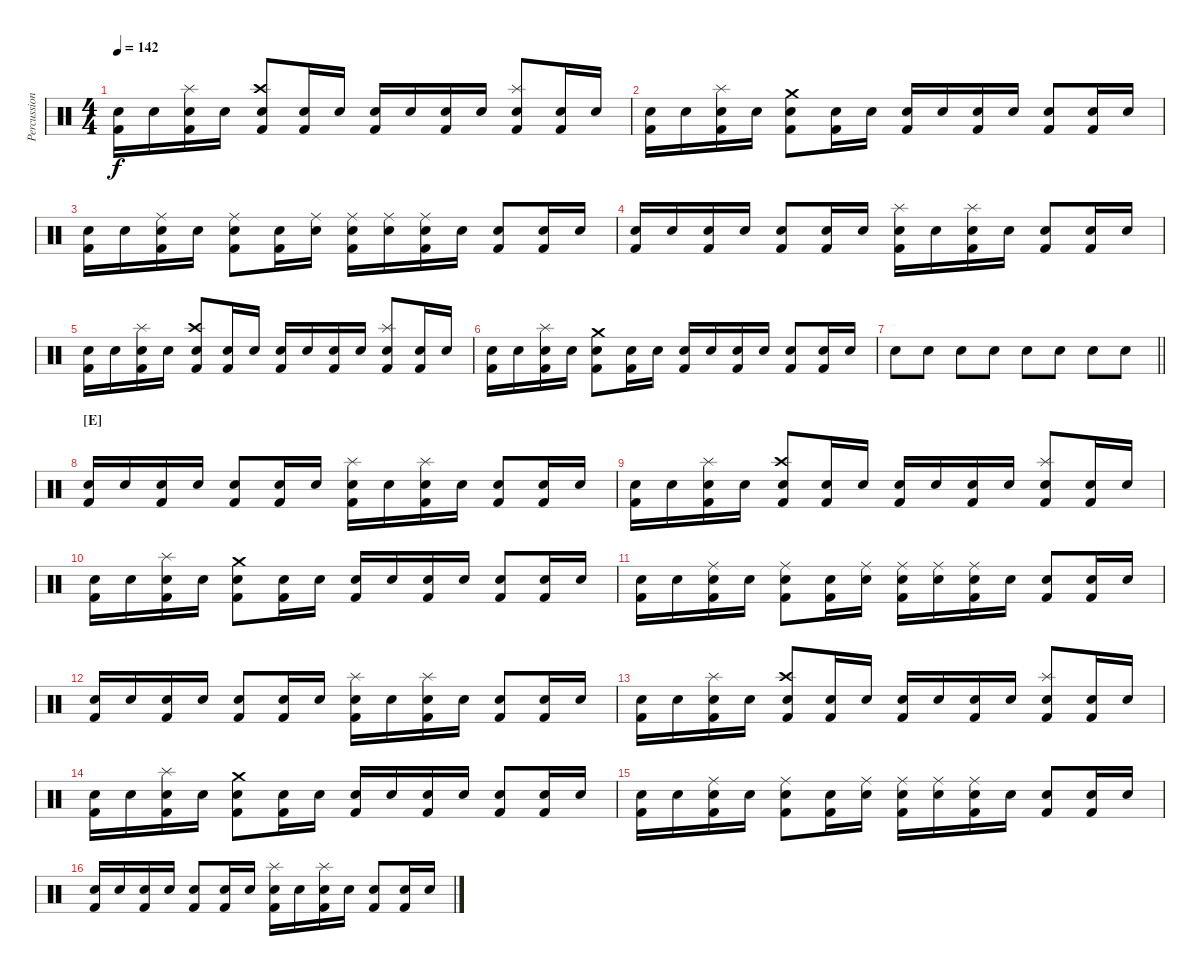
\track ("Percussions" "Percussion") {instrument percussion}
\staff {score}
\articulation defaults
\ts (4 4)
\tempo 142
\clef neutral
\ks c
("Electric Snare (hit)" "Kick (hit) 2").16{dy f} "Electric Snare (hit)".16 ("Splash (hit)" "Electric Snare (hit)" "Kick (hit) 2").16 "Electric Snare (hit)".16 ("Crash high (hit)" "Snare (hit) 2" "Kick (hit) 2").8 ("Electric Snare (hit)" "Kick (hit) 2").16 "Electric Snare (hit)".16 ("Electric Snare (hit)" "Kick (hit) 2").16 "Electric Snare (hit)".16 ("Electric Snare (hit)" "Kick (hit) 2").16 "Electric Snare (hit)".16 ("Splash (hit)" "Snare (hit) 2" "Kick (hit) 2").8 ("Electric Snare (hit)" "Kick (hit) 2").16 "Electric Snare (hit)".16 |
("Electric Snare (hit)" "Kick (hit) 2").16 "Electric Snare (hit)".16 ("Splash (hit)" "Electric Snare (hit)" "Kick (hit) 2").16 "Electric Snare (hit)".16 ("Crash medium (hit)" "Snare (hit) 2" "Kick (hit) 2").8 ("Electric Snare (hit)" "Kick (hit) 2").16 "Electric Snare (hit)".16 ("Electric Snare (hit)" "Kick (hit) 2").16 "Electric Snare (hit)".16 ("Electric Snare (hit)" "Kick (hit) 2").16 "Electric Snare (hit)".16 ("Snare (hit) 2" "Kick (hit) 2").8 ("Electric Snare (hit)" "Kick (hit) 2").16 "Electric Snare (hit)".16 |
("Electric Snare (hit)" "Kick (hit) 2").16 "Electric Snare (hit)".16 ("Ride (middle)" "Electric Snare (hit)" "Kick (hit) 2").16 "Electric Snare (hit)".16 ("Ride (middle)" "Snare (hit) 2" "Kick (hit) 2").8 ("Electric Snare (hit)" "Kick (hit) 2").16 ("Ride (middle)" "Electric Snare (hit)").16 ("Ride (middle)" "Electric Snare (hit)" "Kick (hit) 2").16 ("Ride (middle)" "Electric Snare (hit)").16 ("Ride (middle)" "Electric Snare (hit)" "Kick (hit) 2").16 "Electric Snare (hit)".16 ("Snare (hit) 2" "Kick (hit) 2").8 ("Electric Snare (hit)" "Kick (hit) 2").16 "Electric Snare (hit)".16 |
("Electric Snare (hit)" "Kick (hit) 2").16 "Electric Snare (hit)".16 ("Electric Snare (hit)" "Kick (hit) 2").16 "Electric Snare (hit)".16 ("Snare (hit) 2" "Kick (hit) 2").8 ("Electric Snare (hit)" "Kick (hit) 2").16 "Electric Snare (hit)".16 ("Splash (hit)" "Electric Snare (hit)" "Kick (hit) 2").16 "Electric Snare (hit)".16 ("Splash (hit)" "Electric Snare (hit)" "Kick (hit) 2").16 "Electric Snare (hit)".16 ("Snare (hit) 2" "Kick (hit) 2").8 ("Electric Snare (hit)" "Kick (hit) 2").16 "Electric Snare (hit)".16 |
("Electric Snare (hit)" "Kick (hit) 2").16 "Electric Snare (hit)".16 ("Splash (hit)" "Electric Snare (hit)" "Kick (hit) 2").16 "Electric Snare (hit)".16 ("Crash high (hit)" "Snare (hit) 2" "Kick (hit) 2").8 ("Electric Snare (hit)" "Kick (hit) 2").16 "Electric Snare (hit)".16 ("Electric Snare (hit)" "Kick (hit) 2").16 "Electric Snare (hit)".16 ("Electric Snare (hit)" "Kick (hit) 2").16 "Electric Snare (hit)".16 ("Splash (hit)" "Snare (hit) 2" "Kick (hit) 2").8 ("Electric Snare (hit)" "Kick (hit) 2").16 "Electric Snare (hit)".16 |
("Electric Snare (hit)" "Kick (hit) 2").16 "Electric Snare (hit)".16 ("Splash (hit)" "Electric Snare (hit)" "Kick (hit) 2").16 "Electric Snare (hit)".16 ("Crash medium (hit)" "Snare (hit) 2" "Kick (hit) 2").8 ("Electric Snare (hit)" "Kick (hit) 2").16 "Electric Snare (hit)".16 ("Electric Snare (hit)" "Kick (hit) 2").16 "Electric Snare (hit)".16 ("Electric Snare (hit)" "Kick (hit) 2").16 "Electric Snare (hit)".16 ("Snare (hit) 2" "Kick (hit) 2").8 ("Electric Snare (hit)" "Kick (hit) 2").16 "Electric Snare (hit)".16 |
\barLineRight lightlight "Electric Snare (hit)".8 "Electric Snare (hit)".8 "Electric Snare (hit)".8 "Electric Snare (hit)".8 "Electric Snare (hit)".8 "Electric Snare (hit)".8 "Electric Snare (hit)".8 "Electric Snare (hit)".8
|
\section ("" "[E]")
("Electric Snare (hit)" "Kick (hit) 2").16 "Electric Snare (hit)".16 ("Electric Snare (hit)" "Kick (hit) 2").16 "Electric Snare (hit)".16 ("Snare (hit) 2" "Kick (hit) 2").8 ("Electric Snare (hit)" "Kick (hit) 2").16 "Electric Snare (hit)".16 ("Splash (hit)" "Electric Snare (hit)" "Kick (hit) 2").16 "Electric Snare (hit)".16 ("Splash (hit)" "Electric Snare (hit)" "Kick (hit) 2").16 "Electric Snare (hit)".16 ("Snare (hit) 2" "Kick (hit) 2").8 ("Electric Snare (hit)" "Kick (hit) 2").16 "Electric Snare (hit)".16 |
("Electric Snare (hit)" "Kick (hit) 2").16 "Electric Snare (hit)".16 ("Splash (hit)" "Electric Snare (hit)" "Kick (hit) 2").16 "Electric Snare (hit)".16 ("Crash high (hit)" "Snare (hit) 2" "Kick (hit) 2").8 ("Electric Snare (hit)" "Kick (hit) 2").16 "Electric Snare (hit)".16 ("Electric Snare (hit)" "Kick (hit) 2").16 "Electric Snare (hit)".16 ("Electric Snare (hit)" "Kick (hit) 2").16 "Electric Snare (hit)".16 ("Splash (hit)" "Snare (hit) 2" "Kick (hit) 2").8 ("Electric Snare (hit)" "Kick (hit) 2").16 "Electric Snare (hit)".16 |
("Electric Snare (hit)" "Kick (hit) 2").16 "Electric Snare (hit)".16 ("Splash (hit)" "Electric Snare (hit)" "Kick (hit) 2").16 "Electric Snare (hit)".16 ("Crash medium (hit)" "Snare (hit) 2" "Kick (hit) 2").8 ("Electric Snare (hit)" "Kick (hit) 2").16 "Electric Snare (hit)".16 ("Electric Snare (hit)" "Kick (hit) 2").16 "Electric Snare (hit)".16 ("Electric Snare (hit)" "Kick (hit) 2").16 "Electric Snare (hit)".16 ("Snare (hit) 2" "Kick (hit) 2").8 ("Electric Snare (hit)" "Kick (hit) 2").16 "Electric Snare (hit)".16 |
("Electric Snare (hit)" "Kick (hit) 2").16 "Electric Snare (hit)".16 ("Ride (middle)" "Electric Snare (hit)" "Kick (hit) 2").16 "Electric Snare (hit)".16 ("Ride (middle)" "Snare (hit) 2" "Kick (hit) 2").8 ("Electric Snare (hit)" "Kick (hit) 2").16 ("Ride (middle)" "Electric Snare (hit)").16 ("Ride (middle)" "Electric Snare (hit)" "Kick (hit) 2").16 ("Ride (middle)" "Electric Snare (hit)").16 ("Ride (middle)" "Electric Snare (hit)" "Kick (hit) 2").16 "Electric Snare (hit)".16 ("Snare (hit) 2" "Kick (hit) 2").8 ("Electric Snare (hit)" "Kick (hit) 2").16 "Electric Snare (hit)".16 |
("Electric Snare (hit)" "Kick (hit) 2").16 "Electric Snare (hit)".16 ("Electric Snare (hit)" "Kick (hit) 2").16 "Electric Snare (hit)".16 ("Snare (hit) 2" "Kick (hit) 2").8 ("Electric Snare (hit)" "Kick (hit) 2").16 "Electric Snare (hit)".16 ("Splash (hit)" "Electric Snare (hit)" "Kick (hit) 2").16 "Electric Snare (hit)".16 ("Splash (hit)" "Electric Snare (hit)" "Kick (hit) 2").16 "Electric Snare (hit)".16 ("Snare (hit) 2" "Kick (hit) 2").8 ("Electric Snare (hit)" "Kick (hit) 2").16 "Electric Snare (hit)".16 |
("Electric Snare (hit)" "Kick (hit) 2").16 "Electric Snare (hit)".16 ("Splash (hit)" "Electric Snare (hit)" "Kick (hit) 2").16 "Electric Snare (hit)".16 ("Crash high (hit)" "Snare (hit) 2" "Kick (hit) 2").8 ("Electric Snare (hit)" "Kick (hit) 2").16 "Electric Snare (hit)".16 ("Electric Snare (hit)" "Kick (hit) 2").16 "Electric Snare (hit)".16 ("Electric Snare (hit)" "Kick (hit) 2").16 "Electric Snare (hit)".16 ("Splash (hit)" "Snare (hit) 2" "Kick (hit) 2").8 ("Electric Snare (hit)" "Kick (hit) 2").16 "Electric Snare (hit)".16 |
("Electric Snare (hit)" "Kick (hit) 2").16 "Electric Snare (hit)".16 ("Splash (hit)" "Electric Snare (hit)" "Kick (hit) 2").16 "Electric Snare (hit)".16 ("Crash medium (hit)" "Snare (hit) 2" "Kick (hit) 2").8 ("Electric Snare (hit)" "Kick (hit) 2").16 "Electric Snare (hit)".16 ("Electric Snare (hit)" "Kick (hit) 2").16 "Electric Snare (hit)".16 ("Electric Snare (hit)" "Kick (hit) 2").16 "Electric Snare (hit)".16 ("Snare (hit) 2" "Kick (hit) 2").8 ("Electric Snare (hit)" "Kick (hit) 2").16 "Electric Snare (hit)".16 |
("Electric Snare (hit)" "Kick (hit) 2").16 "Electric Snare (hit)".16 ("Ride (middle)" "Electric Snare (hit)" "Kick (hit) 2").16 "Electric Snare (hit)".16 ("Ride (middle)" "Snare (hit) 2" "Kick (hit) 2").8 ("Electric Snare (hit)" "Kick (hit) 2").16 ("Ride (middle)" "Electric Snare (hit)").16 ("Ride (middle)" "Electric Snare (hit)" "Kick (hit) 2").16 ("Ride (middle)" "Electric Snare (hit)").16 ("Ride (middle)" "Electric Snare (hit)" "Kick (hit) 2").16 "Electric Snare (hit)".16 ("Snare (hit) 2" "Kick (hit) 2").8 ("Electric Snare (hit)" "Kick (hit) 2").16 "Electric Snare (hit)".16 |
("Electric Snare (hit)" "Kick (hit) 2").16 "Electric Snare (hit)".16 ("Electric Snare (hit)" "Kick (hit) 2").16 "Electric Snare (hit)".16 ("Snare (hit) 2" "Kick (hit) 2").8 ("Electric Snare (hit)" "Kick (hit) 2").16 "Electric Snare (hit)".16 ("Splash (hit)" "Electric Snare (hit)" "Kick (hit) 2").16 "Electric Snare (hit)".16 ("Splash (hit)" "Electric Snare (hit)" "Kick (hit) 2").16 "Electric Snare (hit)".16 ("Snare (hit) 2" "Kick (hit) 2").8 ("Electric Snare (hit)" "Kick (hit) 2").16 "Electric Snare (hit)".16
